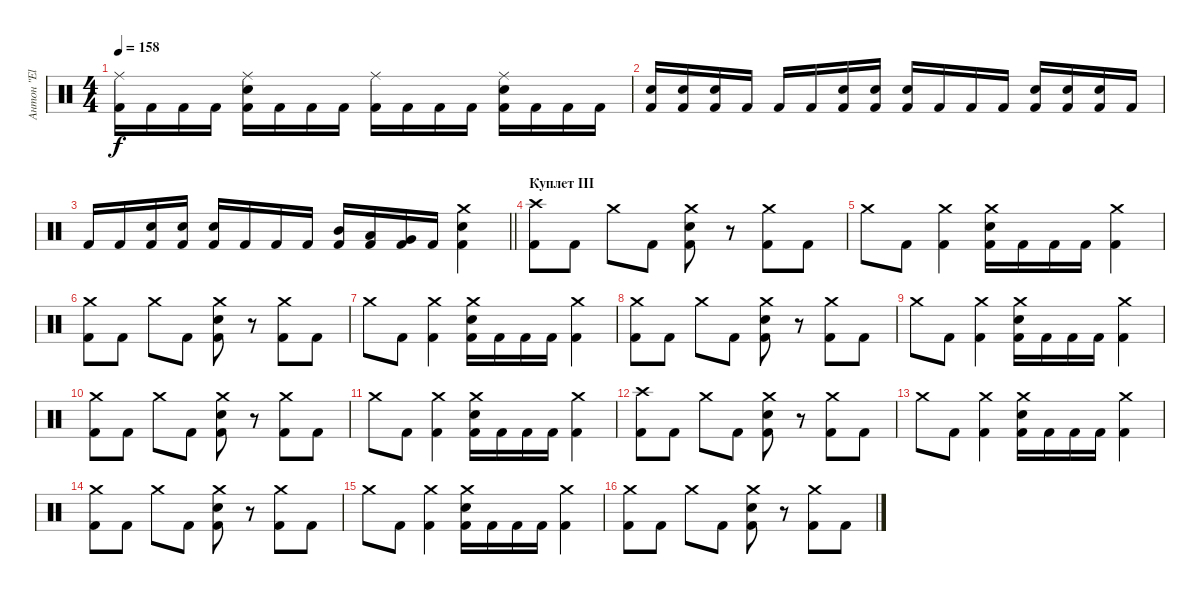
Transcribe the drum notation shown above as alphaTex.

\track ("Антон \"El Bastardo\" Смольянин" "Антон \"El ") {instrument percussion}
\staff {score}
\articulation defaults
\ts (4 4)
\tempo 158
\clef neutral
\ks c
("Ride (middle)" "Kick (hit) 2").16{dy f} "Kick (hit) 2".16 "Kick (hit) 2".16 "Kick (hit) 2".16 ("Ride (middle)" "Electric Snare (hit)" "Kick (hit) 2").16 "Kick (hit) 2".16 "Kick (hit) 2".16 "Kick (hit) 2".16 ("Ride (middle)" "Kick (hit) 2").16 "Kick (hit) 2".16 "Kick (hit) 2".16 "Kick (hit) 2".16 ("Ride (middle)" "Electric Snare (hit)" "Kick (hit) 2").16 "Kick (hit) 2".16 "Kick (hit) 2".16 "Kick (hit) 2".16 |
("Electric Snare (hit)" "Kick (hit) 2").16 ("Electric Snare (hit)" "Kick (hit) 2").16 ("Electric Snare (hit)" "Kick (hit) 2").16 "Kick (hit) 2".16 "Kick (hit) 2".16 "Kick (hit) 2".16 ("Electric Snare (hit)" "Kick (hit) 2").16 ("Electric Snare (hit)" "Kick (hit) 2").16 ("Electric Snare (hit)" "Kick (hit) 2").16 "Kick (hit) 2".16 "Kick (hit) 2".16 "Kick (hit) 2".16 ("Electric Snare (hit)" "Kick (hit) 2").16 ("Electric Snare (hit)" "Kick (hit) 2").16 ("Electric Snare (hit)" "Kick (hit) 2").16 "Kick (hit) 2".16 |
\barLineRight lightlight "Kick (hit) 2".16 "Kick (hit) 2".16
("Electric Snare (hit)" "Kick (hit) 2").16 ("Electric Snare (hit)" "Kick (hit) 2").16 ("Electric Snare (hit)" "Kick (hit) 2").16 "Kick (hit) 2".16 "Kick (hit) 2".16 "Kick (hit) 2".16 ("Mid Tom (hit)" "Kick (hit) 2").16 ("Low Tom (hit)" "Kick (hit) 2").16 ("Very Low Tom (hit)" "Kick (hit) 2").16 "Kick (hit) 2".16 ("Crash medium (hit)" "Electric Snare (hit)" "Kick (hit) 2").4 |
\section ("" "Куплет III")
("Crash high (hit)" "Kick (hit) 2").8 "Kick (hit) 2".8 "Crash medium (hit)".8 "Kick (hit) 2".8 ("Crash medium (hit)" "Electric Snare (hit)" "Kick (hit) 2").8 r.8 ("Crash medium (hit)" "Kick (hit) 2").8 "Kick (hit) 2".8 |
"Crash medium (hit)".8 "Kick (hit) 2".8 ("Crash medium (hit)" "Kick (hit) 2").4 ("Crash medium (hit)" "Electric Snare (hit)" "Kick (hit) 2").16 "Kick (hit) 2".16 "Kick (hit) 2".16 "Kick (hit) 2".16 ("Crash medium (hit)" "Kick (hit) 2").4 |
("Crash medium (hit)" "Kick (hit) 2").8 "Kick (hit) 2".8 "Crash medium (hit)".8 "Kick (hit) 2".8 ("Crash medium (hit)" "Electric Snare (hit)" "Kick (hit) 2").8 r.8 ("Crash medium (hit)" "Kick (hit) 2").8 "Kick (hit) 2".8 |
"Crash medium (hit)".8 "Kick (hit) 2".8 ("Crash medium (hit)" "Kick (hit) 2").4 ("Crash medium (hit)" "Electric Snare (hit)" "Kick (hit) 2").16 "Kick (hit) 2".16 "Kick (hit) 2".16 "Kick (hit) 2".16 ("Crash medium (hit)" "Kick (hit) 2").4 |
("Crash medium (hit)" "Kick (hit) 2").8 "Kick (hit) 2".8 "Crash medium (hit)".8 "Kick (hit) 2".8 ("Crash medium (hit)" "Electric Snare (hit)" "Kick (hit) 2").8 r.8 ("Crash medium (hit)" "Kick (hit) 2").8 "Kick (hit) 2".8 |
"Crash medium (hit)".8 "Kick (hit) 2".8 ("Crash medium (hit)" "Kick (hit) 2").4 ("Crash medium (hit)" "Electric Snare (hit)" "Kick (hit) 2").16 "Kick (hit) 2".16 "Kick (hit) 2".16 "Kick (hit) 2".16 ("Crash medium (hit)" "Kick (hit) 2").4 |
("Crash medium (hit)" "Kick (hit) 2").8 "Kick (hit) 2".8 "Crash medium (hit)".8 "Kick (hit) 2".8 ("Crash medium (hit)" "Electric Snare (hit)" "Kick (hit) 2").8 r.8 ("Crash medium (hit)" "Kick (hit) 2").8 "Kick (hit) 2".8 |
"Crash medium (hit)".8 "Kick (hit) 2".8 ("Crash medium (hit)" "Kick (hit) 2").4 ("Crash medium (hit)" "Electric Snare (hit)" "Kick (hit) 2").16 "Kick (hit) 2".16 "Kick (hit) 2".16 "Kick (hit) 2".16 ("Crash medium (hit)" "Kick (hit) 2").4 |
("Crash high (hit)" "Kick (hit) 2").8 "Kick (hit) 2".8 "Crash medium (hit)".8 "Kick (hit) 2".8 ("Crash medium (hit)" "Electric Snare (hit)" "Kick (hit) 2").8 r.8 ("Crash medium (hit)" "Kick (hit) 2").8 "Kick (hit) 2".8 |
"Crash medium (hit)".8 "Kick (hit) 2".8 ("Crash medium (hit)" "Kick (hit) 2").4 ("Crash medium (hit)" "Electric Snare (hit)" "Kick (hit) 2").16 "Kick (hit) 2".16 "Kick (hit) 2".16 "Kick (hit) 2".16 ("Crash medium (hit)" "Kick (hit) 2").4 |
("Crash medium (hit)" "Kick (hit) 2").8 "Kick (hit) 2".8 "Crash medium (hit)".8 "Kick (hit) 2".8 ("Crash medium (hit)" "Electric Snare (hit)" "Kick (hit) 2").8 r.8 ("Crash medium (hit)" "Kick (hit) 2").8 "Kick (hit) 2".8 |
"Crash medium (hit)".8 "Kick (hit) 2".8 ("Crash medium (hit)" "Kick (hit) 2").4 ("Crash medium (hit)" "Electric Snare (hit)" "Kick (hit) 2").16 "Kick (hit) 2".16 "Kick (hit) 2".16 "Kick (hit) 2".16 ("Crash medium (hit)" "Kick (hit) 2").4 |
("Crash medium (hit)" "Kick (hit) 2").8 "Kick (hit) 2".8 "Crash medium (hit)".8 "Kick (hit) 2".8 ("Crash medium (hit)" "Electric Snare (hit)" "Kick (hit) 2").8 r.8 ("Crash medium (hit)" "Kick (hit) 2").8 "Kick (hit) 2".8
